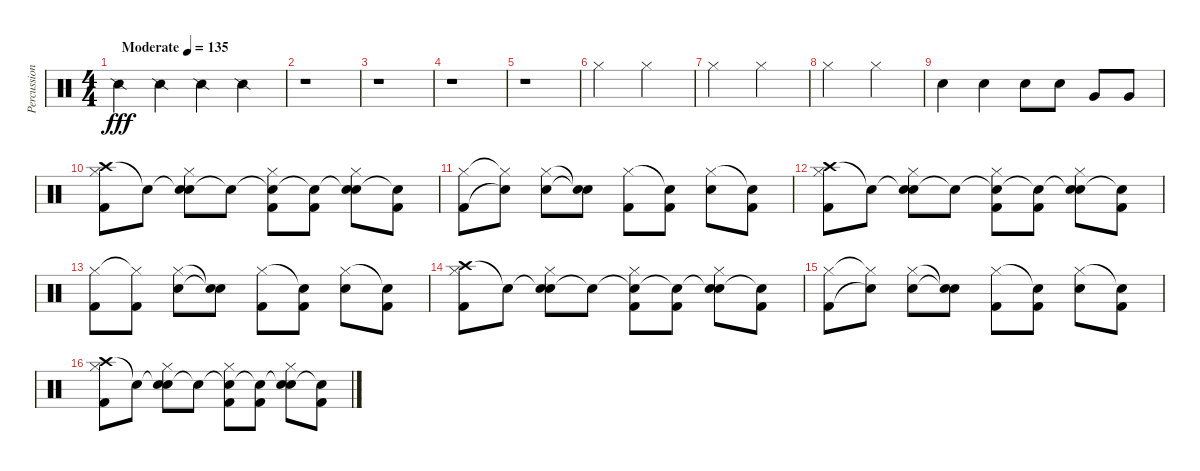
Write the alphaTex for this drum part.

\track ("Percussion" "Percussion") {instrument percussion}
\staff {score}
\articulation defaults
\ts (4 4)
\tempo (135 "Moderate")
\clef neutral
\ks c "Snare (side stick) 2".4{dy fff} "Snare (side stick) 2".4 "Snare (side stick) 2".4 "Snare (side stick) 2".4
|
r.1 |
r.1 |
r.1 |
r.1 |
"Hi-Hat (closed)".2 "Hi-Hat (closed)".2 |
"Hi-Hat (closed)".2 "Hi-Hat (closed)".2 |
"Hi-Hat (closed)".2 "Hi-Hat (closed)".2 |
"Electric Snare (hit)".4 "Electric Snare (hit)".4 "Electric Snare (hit)".8 "Electric Snare (hit)".8 "Very Low Tom (hit)".8 "Very Low Tom (hit)".8 |
("Crash high (hit)" "Kick (hit) 2" "Hi-Hat (closed)").8 "Snare (hit)"{t}.8 ("Snare (hit)"{t} "Electric Snare (hit)" "Hi-Hat (closed)").8 "Snare (hit)"{t}.8 ("Snare (hit)"{t} "Kick (hit) 2" "Hi-Hat (closed)").8 ("Snare (hit)"{t} "Kick (hit) 2").8 ("Snare (hit)"{t} "Electric Snare (hit)" "Hi-Hat (closed)").8 ("Snare (hit)"{t} "Kick (hit) 2").8 |
("Kick (hit) 2" "Hi-Hat (closed)").8 ("Snare (hit)"{t} "Hi-Hat (closed)"{t}).8 ("Electric Snare (hit)" "Hi-Hat (closed)").8 ("Snare (hit)"{t} "Snare (hit)"{t}).8 ("Kick (hit) 2" "Hi-Hat (closed)").8 ("Kick (hit) 2" "Snare (hit)"{t}).8 ("Electric Snare (hit)" "Hi-Hat (closed)").8 ("Kick (hit) 2" "Snare (hit)"{t}).8 |
("Crash high (hit)" "Kick (hit) 2" "Hi-Hat (closed)").8 "Snare (hit)"{t}.8 ("Snare (hit)"{t} "Electric Snare (hit)" "Hi-Hat (closed)").8 "Snare (hit)"{t}.8 ("Snare (hit)"{t} "Kick (hit) 2" "Hi-Hat (closed)").8 ("Snare (hit)"{t} "Kick (hit) 2").8 ("Snare (hit)"{t} "Electric Snare (hit)" "Hi-Hat (closed)").8 ("Snare (hit)"{t} "Kick (hit) 2").8 |
("Kick (hit) 2" "Hi-Hat (closed)").8 ("Kick (hit) 2" "Hi-Hat (closed)"{t}).8 ("Electric Snare (hit)" "Hi-Hat (closed)").8 ("Snare (hit)"{t} "Snare (hit)"{t}).8 ("Kick (hit) 2" "Hi-Hat (closed)").8 ("Kick (hit) 2" "Snare (hit)"{t}).8 ("Electric Snare (hit)" "Hi-Hat (closed)").8 ("Kick (hit) 2" "Snare (hit)"{t}).8 |
("Crash high (hit)" "Kick (hit) 2" "Hi-Hat (closed)").8 "Snare (hit)"{t}.8 ("Snare (hit)"{t} "Electric Snare (hit)" "Hi-Hat (closed)").8 "Snare (hit)"{t}.8 ("Snare (hit)"{t} "Kick (hit) 2" "Hi-Hat (closed)").8 ("Snare (hit)"{t} "Kick (hit) 2").8 ("Snare (hit)"{t} "Electric Snare (hit)" "Hi-Hat (closed)").8 ("Snare (hit)"{t} "Kick (hit) 2").8 |
("Kick (hit) 2" "Hi-Hat (closed)").8 ("Snare (hit)"{t} "Hi-Hat (closed)"{t}).8 ("Electric Snare (hit)" "Hi-Hat (closed)").8 ("Snare (hit)"{t} "Snare (hit)"{t}).8 ("Kick (hit) 2" "Hi-Hat (closed)").8 ("Kick (hit) 2" "Snare (hit)"{t}).8 ("Electric Snare (hit)" "Hi-Hat (closed)").8 ("Kick (hit) 2" "Snare (hit)"{t}).8 |
("Crash high (hit)" "Kick (hit) 2" "Hi-Hat (closed)").8 "Snare (hit)"{t}.8 ("Snare (hit)"{t} "Electric Snare (hit)" "Hi-Hat (closed)").8 "Snare (hit)"{t}.8 ("Snare (hit)"{t} "Kick (hit) 2" "Hi-Hat (closed)").8 ("Snare (hit)"{t} "Kick (hit) 2").8 ("Snare (hit)"{t} "Electric Snare (hit)" "Hi-Hat (closed)").8 ("Snare (hit)"{t} "Kick (hit) 2").8
